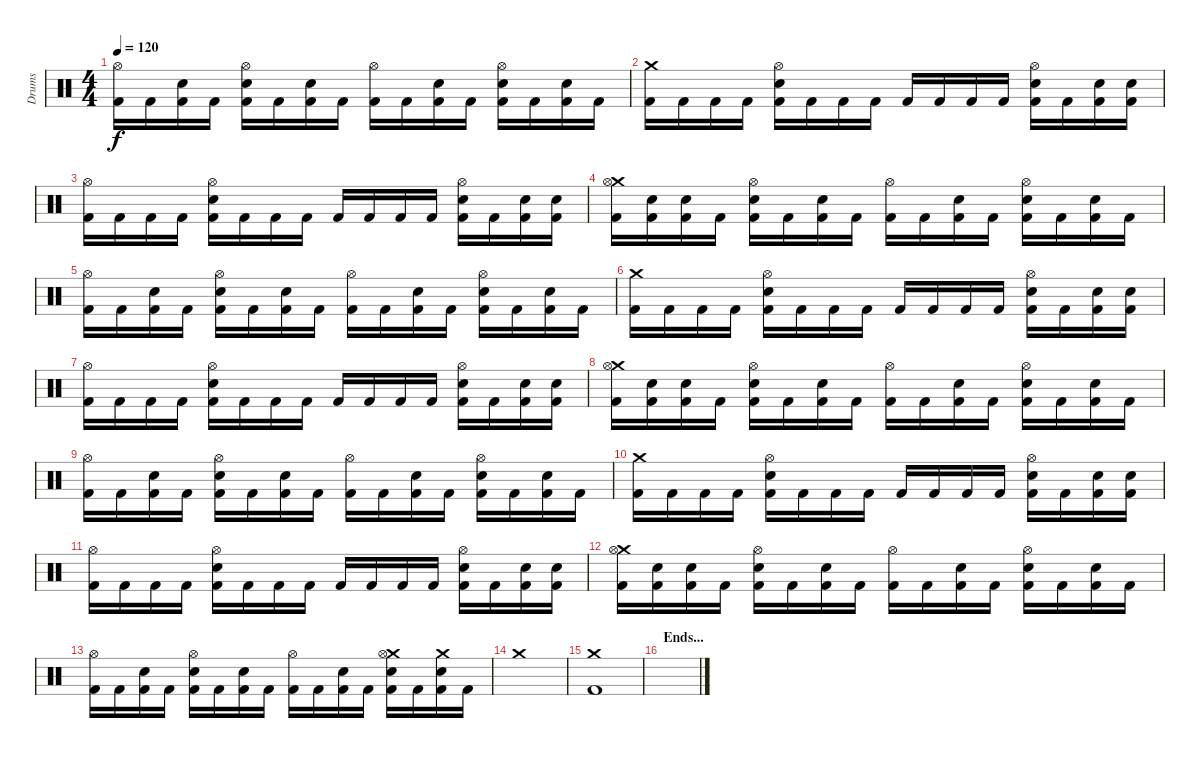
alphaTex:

\track ("Drums" "Drums") {instrument percussion}
\staff {score}
\articulation defaults
\ts (4 4)
\tempo 120
\clef neutral
\ks c
("Hi-Hat (open)" "Kick (hit) 2").16{dy f} "Kick (hit) 2".16 ("Snare (hit) 2" "Kick (hit) 2").16 "Kick (hit) 2".16 ("Hi-Hat (open)" "Snare (hit) 2" "Kick (hit) 2").16 "Kick (hit) 2".16 ("Snare (hit) 2" "Kick (hit) 2").16 "Kick (hit) 2".16 ("Hi-Hat (open)" "Kick (hit) 2").16 "Kick (hit) 2".16 ("Snare (hit) 2" "Kick (hit) 2").16 "Kick (hit) 2".16 ("Hi-Hat (open)" "Snare (hit) 2" "Kick (hit) 2").16 "Kick (hit) 2".16 ("Snare (hit) 2" "Kick (hit) 2").16 "Kick (hit) 2".16 |
("Crash medium (hit)" "Kick (hit) 2").16 "Kick (hit) 2".16 "Kick (hit) 2".16 "Kick (hit) 2".16 ("Hi-Hat (open)" "Snare (hit) 2" "Kick (hit) 2").16 "Kick (hit) 2".16 "Kick (hit) 2".16 "Kick (hit) 2".16 "Kick (hit) 2".16 "Kick (hit) 2".16 "Kick (hit) 2".16 "Kick (hit) 2".16 ("Hi-Hat (open)" "Snare (hit) 2" "Kick (hit) 2").16 "Kick (hit) 2".16 ("Snare (hit) 2" "Kick (hit) 2").16 ("Snare (hit) 2" "Kick (hit) 2").16 |
("Hi-Hat (open)" "Kick (hit) 2").16 "Kick (hit) 2".16 "Kick (hit) 2".16 "Kick (hit) 2".16 ("Hi-Hat (open)" "Snare (hit) 2" "Kick (hit) 2").16 "Kick (hit) 2".16 "Kick (hit) 2".16 "Kick (hit) 2".16 "Kick (hit) 2".16 "Kick (hit) 2".16 "Kick (hit) 2".16 "Kick (hit) 2".16 ("Hi-Hat (open)" "Snare (hit) 2" "Kick (hit) 2").16 "Kick (hit) 2".16 ("Snare (hit) 2" "Kick (hit) 2").16 ("Snare (hit) 2" "Kick (hit) 2").16 |
("Crash medium (hit)" "Hi-Hat (open)" "Kick (hit) 2").16 ("Snare (hit) 2" "Kick (hit) 2").16 ("Snare (hit) 2" "Kick (hit) 2").16 "Kick (hit) 2".16 ("Hi-Hat (open)" "Snare (hit) 2" "Kick (hit) 2").16 "Kick (hit) 2".16 ("Snare (hit) 2" "Kick (hit) 2").16 "Kick (hit) 2".16 ("Hi-Hat (open)" "Kick (hit) 2").16 "Kick (hit) 2".16 ("Snare (hit) 2" "Kick (hit) 2").16 "Kick (hit) 2".16 ("Hi-Hat (open)" "Snare (hit) 2" "Kick (hit) 2").16 "Kick (hit) 2".16 ("Snare (hit) 2" "Kick (hit) 2").16 "Kick (hit) 2".16 |
("Hi-Hat (open)" "Kick (hit) 2").16 "Kick (hit) 2".16 ("Snare (hit) 2" "Kick (hit) 2").16 "Kick (hit) 2".16 ("Hi-Hat (open)" "Snare (hit) 2" "Kick (hit) 2").16 "Kick (hit) 2".16 ("Snare (hit) 2" "Kick (hit) 2").16 "Kick (hit) 2".16 ("Hi-Hat (open)" "Kick (hit) 2").16 "Kick (hit) 2".16 ("Snare (hit) 2" "Kick (hit) 2").16 "Kick (hit) 2".16 ("Hi-Hat (open)" "Snare (hit) 2" "Kick (hit) 2").16 "Kick (hit) 2".16 ("Snare (hit) 2" "Kick (hit) 2").16 "Kick (hit) 2".16 |
("Crash medium (hit)" "Kick (hit) 2").16 "Kick (hit) 2".16 "Kick (hit) 2".16 "Kick (hit) 2".16 ("Hi-Hat (open)" "Snare (hit) 2" "Kick (hit) 2").16 "Kick (hit) 2".16 "Kick (hit) 2".16 "Kick (hit) 2".16 "Kick (hit) 2".16 "Kick (hit) 2".16 "Kick (hit) 2".16 "Kick (hit) 2".16 ("Hi-Hat (open)" "Snare (hit) 2" "Kick (hit) 2").16 "Kick (hit) 2".16 ("Snare (hit) 2" "Kick (hit) 2").16 ("Snare (hit) 2" "Kick (hit) 2").16 |
("Hi-Hat (open)" "Kick (hit) 2").16 "Kick (hit) 2".16 "Kick (hit) 2".16 "Kick (hit) 2".16 ("Hi-Hat (open)" "Snare (hit) 2" "Kick (hit) 2").16 "Kick (hit) 2".16 "Kick (hit) 2".16 "Kick (hit) 2".16 "Kick (hit) 2".16 "Kick (hit) 2".16 "Kick (hit) 2".16 "Kick (hit) 2".16 ("Hi-Hat (open)" "Snare (hit) 2" "Kick (hit) 2").16 "Kick (hit) 2".16 ("Snare (hit) 2" "Kick (hit) 2").16 ("Snare (hit) 2" "Kick (hit) 2").16 |
("Crash medium (hit)" "Hi-Hat (open)" "Kick (hit) 2").16 ("Snare (hit) 2" "Kick (hit) 2").16 ("Snare (hit) 2" "Kick (hit) 2").16 "Kick (hit) 2".16 ("Hi-Hat (open)" "Snare (hit) 2" "Kick (hit) 2").16 "Kick (hit) 2".16 ("Snare (hit) 2" "Kick (hit) 2").16 "Kick (hit) 2".16 ("Hi-Hat (open)" "Kick (hit) 2").16 "Kick (hit) 2".16 ("Snare (hit) 2" "Kick (hit) 2").16 "Kick (hit) 2".16 ("Hi-Hat (open)" "Snare (hit) 2" "Kick (hit) 2").16 "Kick (hit) 2".16 ("Snare (hit) 2" "Kick (hit) 2").16 "Kick (hit) 2".16 |
("Hi-Hat (open)" "Kick (hit) 2").16 "Kick (hit) 2".16 ("Snare (hit) 2" "Kick (hit) 2").16 "Kick (hit) 2".16 ("Hi-Hat (open)" "Snare (hit) 2" "Kick (hit) 2").16 "Kick (hit) 2".16 ("Snare (hit) 2" "Kick (hit) 2").16 "Kick (hit) 2".16 ("Hi-Hat (open)" "Kick (hit) 2").16 "Kick (hit) 2".16 ("Snare (hit) 2" "Kick (hit) 2").16 "Kick (hit) 2".16 ("Hi-Hat (open)" "Snare (hit) 2" "Kick (hit) 2").16 "Kick (hit) 2".16 ("Snare (hit) 2" "Kick (hit) 2").16 "Kick (hit) 2".16 |
("Crash medium (hit)" "Kick (hit) 2").16 "Kick (hit) 2".16 "Kick (hit) 2".16 "Kick (hit) 2".16 ("Hi-Hat (open)" "Snare (hit) 2" "Kick (hit) 2").16 "Kick (hit) 2".16 "Kick (hit) 2".16 "Kick (hit) 2".16 "Kick (hit) 2".16 "Kick (hit) 2".16 "Kick (hit) 2".16 "Kick (hit) 2".16 ("Hi-Hat (open)" "Snare (hit) 2" "Kick (hit) 2").16 "Kick (hit) 2".16 ("Snare (hit) 2" "Kick (hit) 2").16 ("Snare (hit) 2" "Kick (hit) 2").16 |
("Hi-Hat (open)" "Kick (hit) 2").16 "Kick (hit) 2".16 "Kick (hit) 2".16 "Kick (hit) 2".16 ("Hi-Hat (open)" "Snare (hit) 2" "Kick (hit) 2").16 "Kick (hit) 2".16 "Kick (hit) 2".16 "Kick (hit) 2".16 "Kick (hit) 2".16 "Kick (hit) 2".16 "Kick (hit) 2".16 "Kick (hit) 2".16 ("Hi-Hat (open)" "Snare (hit) 2" "Kick (hit) 2").16 "Kick (hit) 2".16 ("Snare (hit) 2" "Kick (hit) 2").16 ("Snare (hit) 2" "Kick (hit) 2").16 |
("Crash medium (hit)" "Hi-Hat (open)" "Kick (hit) 2").16 ("Snare (hit) 2" "Kick (hit) 2").16 ("Snare (hit) 2" "Kick (hit) 2").16 "Kick (hit) 2".16 ("Hi-Hat (open)" "Snare (hit) 2" "Kick (hit) 2").16 "Kick (hit) 2".16 ("Snare (hit) 2" "Kick (hit) 2").16 "Kick (hit) 2".16 ("Hi-Hat (open)" "Kick (hit) 2").16 "Kick (hit) 2".16 ("Snare (hit) 2" "Kick (hit) 2").16 "Kick (hit) 2".16 ("Hi-Hat (open)" "Snare (hit) 2" "Kick (hit) 2").16 "Kick (hit) 2".16 ("Snare (hit) 2" "Kick (hit) 2").16 "Kick (hit) 2".16 |
("Hi-Hat (open)" "Kick (hit) 2").16 "Kick (hit) 2".16 ("Snare (hit) 2" "Kick (hit) 2").16 "Kick (hit) 2".16 ("Hi-Hat (open)" "Snare (hit) 2" "Kick (hit) 2").16 "Kick (hit) 2".16 ("Snare (hit) 2" "Kick (hit) 2").16 "Kick (hit) 2".16 ("Hi-Hat (open)" "Kick (hit) 2").16 "Kick (hit) 2".16 ("Snare (hit) 2" "Kick (hit) 2").16 "Kick (hit) 2".16 ("Crash medium (hit)" "Hi-Hat (open)" "Snare (hit) 2" "Kick (hit) 2").16 "Kick (hit) 2".16 ("Crash medium (hit)" "Snare (hit) 2" "Kick (hit) 2").16 "Kick (hit) 2".16 |
"Crash medium (hit)".1 |
("Crash medium (hit)" "Kick (hit) 2").1 |
\section ("" "Ends...")
